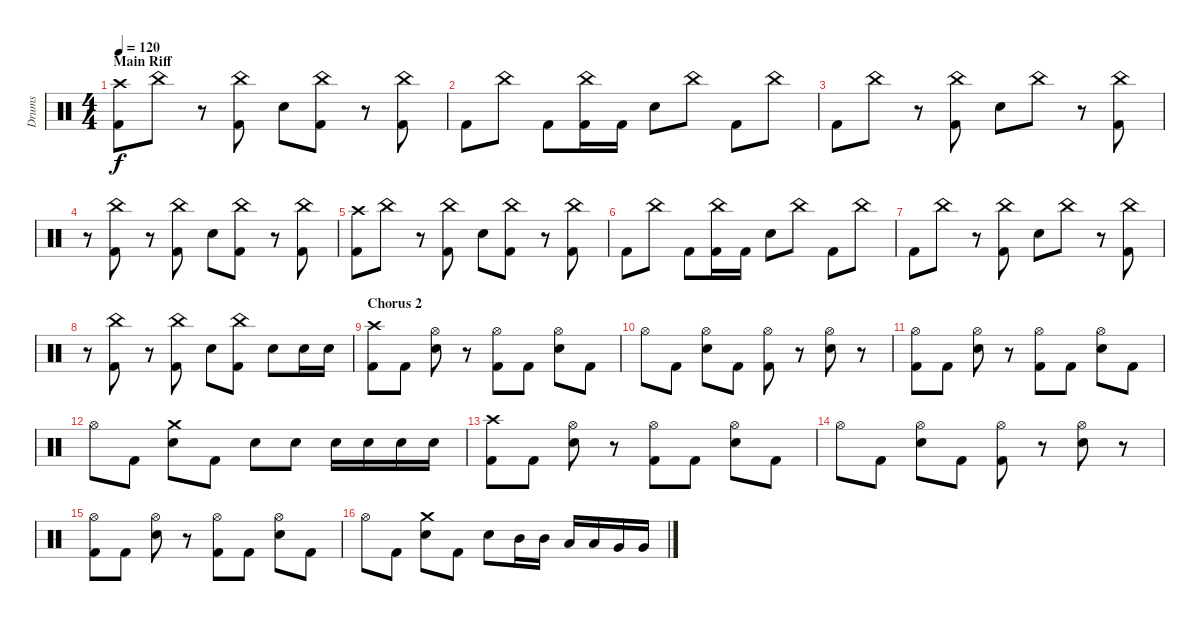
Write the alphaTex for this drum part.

\track ("Drums" "Drums") {instrument percussion}
\staff {score}
\articulation defaults
\ts (4 4)
\section ("" "Main Riff")
\tempo 120
\clef neutral
\ks c
("Crash high (hit)" "Kick (hit) 2").8{dy f} "China (hit)".8 r.8 ("China (hit)" "Kick (hit) 2").8 "Snare (hit) 2".8 ("China (hit)" "Kick (hit) 2").8 r.8 ("China (hit)" "Kick (hit) 2").8 |
"Kick (hit) 2".8 "China (hit)".8 "Kick (hit) 2".8 ("China (hit)" "Kick (hit) 2").16 "Kick (hit) 2".16 "Snare (hit) 2".8 "China (hit)".8 "Kick (hit) 2".8 "China (hit)".8 |
"Kick (hit) 2".8 "China (hit)".8 r.8 ("China (hit)" "Kick (hit) 2").8 "Snare (hit) 2".8 "China (hit)".8 r.8 ("China (hit)" "Kick (hit) 2").8 |
r.8 ("China (hit)" "Kick (hit) 2").8 r.8 ("China (hit)" "Kick (hit) 2").8 "Snare (hit) 2".8 ("China (hit)" "Kick (hit) 2").8 r.8 ("China (hit)" "Kick (hit) 2").8 |
("Crash high (hit)" "Kick (hit) 2").8 "China (hit)".8 r.8 ("China (hit)" "Kick (hit) 2").8 "Snare (hit) 2".8 ("China (hit)" "Kick (hit) 2").8 r.8 ("China (hit)" "Kick (hit) 2").8 |
"Kick (hit) 2".8 "China (hit)".8 "Kick (hit) 2".8 ("China (hit)" "Kick (hit) 2").16 "Kick (hit) 2".16 "Snare (hit) 2".8 "China (hit)".8 "Kick (hit) 2".8 "China (hit)".8 |
"Kick (hit) 2".8 "China (hit)".8 r.8 ("China (hit)" "Kick (hit) 2").8 "Snare (hit) 2".8 "China (hit)".8 r.8 ("China (hit)" "Kick (hit) 2").8 |
r.8 ("China (hit)" "Kick (hit) 2").8 r.8 ("China (hit)" "Kick (hit) 2").8 "Snare (hit) 2".8 ("China (hit)" "Kick (hit) 2").8 "Snare (hit) 2".8 "Snare (hit) 2".16 "Snare (hit) 2".16 |
\section ("" "Chorus 2")
("Crash high (hit)" "Kick (hit) 2").8 "Kick (hit) 2".8 ("Hi-Hat (open)" "Snare (hit) 2").8 r.8 ("Hi-Hat (open)" "Kick (hit) 2").8 "Kick (hit) 2".8 ("Hi-Hat (open)" "Snare (hit) 2").8 "Kick (hit) 2".8 |
"Hi-Hat (open)".8 "Kick (hit) 2".8 ("Hi-Hat (open)" "Snare (hit) 2").8 "Kick (hit) 2".8 ("Hi-Hat (open)" "Kick (hit) 2").8 r.8 ("Hi-Hat (open)" "Snare (hit) 2").8 r.8 |
("Hi-Hat (open)" "Kick (hit) 2").8 "Kick (hit) 2".8 ("Hi-Hat (open)" "Snare (hit) 2").8 r.8 ("Hi-Hat (open)" "Kick (hit) 2").8 "Kick (hit) 2".8 ("Hi-Hat (open)" "Snare (hit) 2").8 "Kick (hit) 2".8 |
"Hi-Hat (open)".8 "Kick (hit) 2".8 ("Crash medium (hit)" "Snare (hit) 2").8 "Kick (hit) 2".8 "Snare (hit) 2".8 "Snare (hit) 2".8 "Snare (hit) 2".16 "Snare (hit) 2".16 "Snare (hit) 2".16 "Snare (hit) 2".16 |
("Crash high (hit)" "Kick (hit) 2").8 "Kick (hit) 2".8 ("Hi-Hat (open)" "Snare (hit) 2").8 r.8 ("Hi-Hat (open)" "Kick (hit) 2").8 "Kick (hit) 2".8 ("Hi-Hat (open)" "Snare (hit) 2").8 "Kick (hit) 2".8 |
"Hi-Hat (open)".8 "Kick (hit) 2".8 ("Hi-Hat (open)" "Snare (hit) 2").8 "Kick (hit) 2".8 ("Hi-Hat (open)" "Kick (hit) 2").8 r.8 ("Hi-Hat (open)" "Snare (hit) 2").8 r.8 |
("Hi-Hat (open)" "Kick (hit) 2").8 "Kick (hit) 2".8 ("Hi-Hat (open)" "Snare (hit) 2").8 r.8 ("Hi-Hat (open)" "Kick (hit) 2").8 "Kick (hit) 2".8 ("Hi-Hat (open)" "Snare (hit) 2").8 "Kick (hit) 2".8 |
"Hi-Hat (open)".8 "Kick (hit) 2".8 ("Crash medium (hit)" "Snare (hit) 2").8 "Kick (hit) 2".8 "Snare (hit) 2".8 "Mid Tom (hit)".16 "Mid Tom (hit)".16 "Low Tom (hit)".16 "Low Tom (hit)".16 "Very Low Tom (hit)".16 "Very Low Tom (hit)".16
